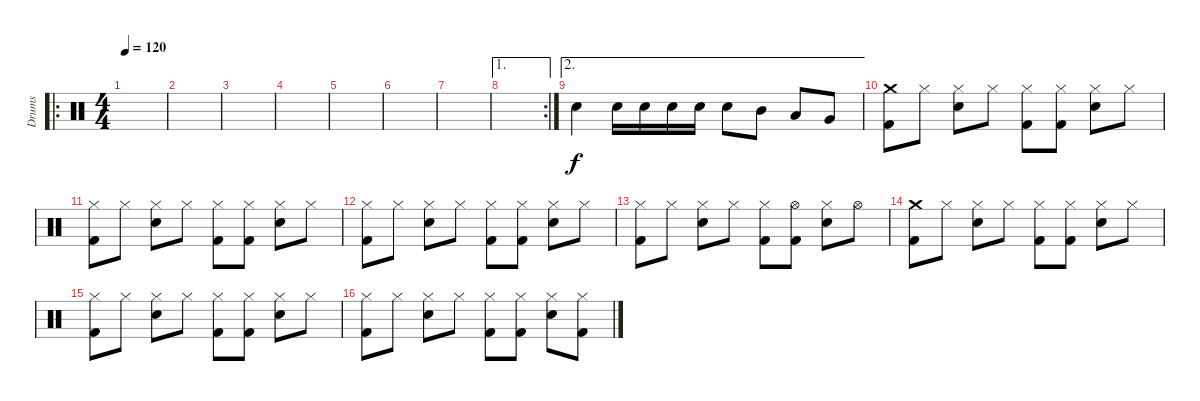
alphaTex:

\track ("Drums" "Drums") {instrument percussion}
\staff {score}
\articulation defaults
\ro
\ts (4 4)
\tempo 120
\clef neutral
\ks c
|
|
|
|
|
|
|
\ae 1
\rc 2
|
\ae 2 "Snare (hit) 2".4 "Snare (hit) 2".16 "Snare (hit) 2".16 "Snare (hit) 2".16 "Snare (hit) 2".16 "Snare (hit) 2".8 "Mid Tom (hit)".8 "Low Tom (hit)".8 "Very Low Tom (hit)".8
|
("Crash medium (hit)" "Kick (hit) 2").8 "Hi-Hat (closed)".8 ("Hi-Hat (closed)" "Snare (hit) 2").8 "Hi-Hat (closed)".8 ("Hi-Hat (closed)" "Kick (hit) 2").8 ("Hi-Hat (closed)" "Kick (hit) 2").8 ("Hi-Hat (closed)" "Snare (hit) 2").8 "Hi-Hat (closed)".8 |
("Hi-Hat (closed)" "Kick (hit) 2").8 "Hi-Hat (closed)".8 ("Hi-Hat (closed)" "Snare (hit) 2").8 "Hi-Hat (closed)".8 ("Hi-Hat (closed)" "Kick (hit) 2").8 ("Hi-Hat (closed)" "Kick (hit) 2").8 ("Hi-Hat (closed)" "Snare (hit) 2").8 "Hi-Hat (closed)".8 |
("Hi-Hat (closed)" "Kick (hit) 2").8 "Hi-Hat (closed)".8 ("Hi-Hat (closed)" "Snare (hit) 2").8 "Hi-Hat (closed)".8 ("Hi-Hat (closed)" "Kick (hit) 2").8 ("Hi-Hat (closed)" "Kick (hit) 2").8 ("Hi-Hat (closed)" "Snare (hit) 2").8 "Hi-Hat (closed)".8 |
("Hi-Hat (closed)" "Kick (hit) 2").8 "Hi-Hat (closed)".8 ("Hi-Hat (closed)" "Snare (hit) 2").8 "Hi-Hat (closed)".8 ("Hi-Hat (closed)" "Kick (hit) 2").8 ("Hi-Hat (open)" "Kick (hit) 2").8 ("Hi-Hat (closed)" "Snare (hit) 2").8 "Hi-Hat (open)".8 |
("Crash medium (hit)" "Kick (hit) 2").8 "Hi-Hat (closed)".8 ("Hi-Hat (closed)" "Snare (hit) 2").8 "Hi-Hat (closed)".8 ("Hi-Hat (closed)" "Kick (hit) 2").8 ("Hi-Hat (closed)" "Kick (hit) 2").8 ("Hi-Hat (closed)" "Snare (hit) 2").8 "Hi-Hat (closed)".8 |
("Hi-Hat (closed)" "Kick (hit) 2").8 "Hi-Hat (closed)".8 ("Hi-Hat (closed)" "Snare (hit) 2").8 "Hi-Hat (closed)".8 ("Hi-Hat (closed)" "Kick (hit) 2").8 ("Hi-Hat (closed)" "Kick (hit) 2").8 ("Hi-Hat (closed)" "Snare (hit) 2").8 "Hi-Hat (closed)".8 |
("Hi-Hat (closed)" "Kick (hit) 2").8 "Hi-Hat (closed)".8 ("Hi-Hat (closed)" "Snare (hit) 2").8 "Hi-Hat (closed)".8 ("Hi-Hat (closed)" "Kick (hit) 2").8 ("Hi-Hat (closed)" "Kick (hit) 2").8 ("Hi-Hat (closed)" "Snare (hit) 2").8 ("Hi-Hat (closed)" "Kick (hit) 2").8
